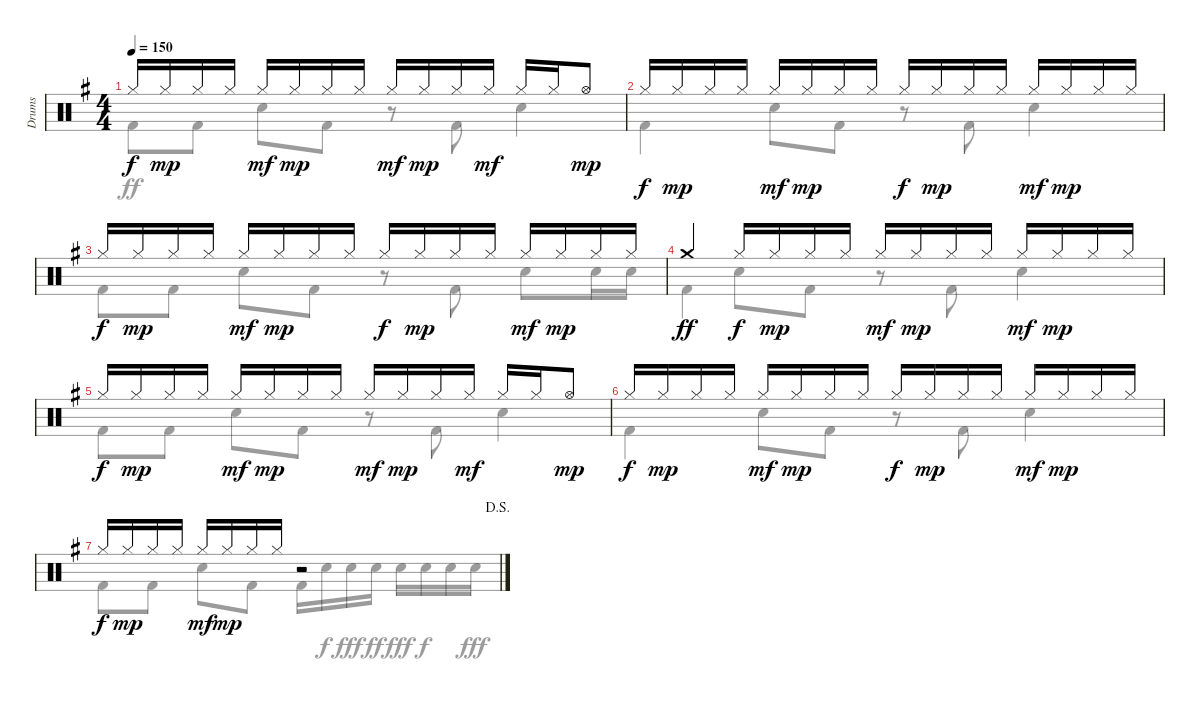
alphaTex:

\track ("Drums" "Drums") {instrument percussion}
\staff {score}
\articulation defaults
\voice
\ts (4 4)
\tempo 150
\clef neutral
\ks eminor "Hi-Hat (closed)".16{dy f} "Hi-Hat (closed)".16{dy mp} "Hi-Hat (closed)".16 "Hi-Hat (closed)".16 "Hi-Hat (closed)".16{dy mf} "Hi-Hat (closed)".16{dy mp} "Hi-Hat (closed)".16 "Hi-Hat (closed)".16 "Hi-Hat (closed)".16{dy mf} "Hi-Hat (closed)".16{dy mp} "Hi-Hat (closed)".16 "Hi-Hat (closed)".16{dy mf} "Hi-Hat (closed)".16 "Hi-Hat (closed)".16 "Hi-Hat (open)".8{dy mp}
|
"Hi-Hat (closed)".16{dy f} "Hi-Hat (closed)".16{dy mp} "Hi-Hat (closed)".16 "Hi-Hat (closed)".16 "Hi-Hat (closed)".16{dy mf} "Hi-Hat (closed)".16{dy mp} "Hi-Hat (closed)".16 "Hi-Hat (closed)".16 "Hi-Hat (closed)".16{dy f} "Hi-Hat (closed)".16{dy mp} "Hi-Hat (closed)".16 "Hi-Hat (closed)".16 "Hi-Hat (closed)".16{dy mf} "Hi-Hat (closed)".16{dy mp} "Hi-Hat (closed)".16 "Hi-Hat (closed)".16 |
"Hi-Hat (closed)".16{dy f} "Hi-Hat (closed)".16{dy mp} "Hi-Hat (closed)".16 "Hi-Hat (closed)".16 "Hi-Hat (closed)".16{dy mf} "Hi-Hat (closed)".16{dy mp} "Hi-Hat (closed)".16 "Hi-Hat (closed)".16 "Hi-Hat (closed)".16{dy f} "Hi-Hat (closed)".16{dy mp} "Hi-Hat (closed)".16 "Hi-Hat (closed)".16 "Hi-Hat (closed)".16{dy mf} "Hi-Hat (closed)".16{dy mp} "Hi-Hat (closed)".16 "Hi-Hat (closed)".16 |
"Crash medium (hit)".4{dy ff} "Hi-Hat (closed)".16{dy f} "Hi-Hat (closed)".16{dy mp} "Hi-Hat (closed)".16 "Hi-Hat (closed)".16 "Hi-Hat (closed)".16{dy mf} "Hi-Hat (closed)".16{dy mp} "Hi-Hat (closed)".16 "Hi-Hat (closed)".16 "Hi-Hat (closed)".16{dy mf} "Hi-Hat (closed)".16{dy mp} "Hi-Hat (closed)".16 "Hi-Hat (closed)".16 |
"Hi-Hat (closed)".16{dy f} "Hi-Hat (closed)".16{dy mp} "Hi-Hat (closed)".16 "Hi-Hat (closed)".16 "Hi-Hat (closed)".16{dy mf} "Hi-Hat (closed)".16{dy mp} "Hi-Hat (closed)".16 "Hi-Hat (closed)".16 "Hi-Hat (closed)".16{dy mf} "Hi-Hat (closed)".16{dy mp} "Hi-Hat (closed)".16 "Hi-Hat (closed)".16{dy mf} "Hi-Hat (closed)".16 "Hi-Hat (closed)".16 "Hi-Hat (open)".8{dy mp} |
"Hi-Hat (closed)".16{dy f} "Hi-Hat (closed)".16{dy mp} "Hi-Hat (closed)".16 "Hi-Hat (closed)".16 "Hi-Hat (closed)".16{dy mf} "Hi-Hat (closed)".16{dy mp} "Hi-Hat (closed)".16 "Hi-Hat (closed)".16 "Hi-Hat (closed)".16{dy f} "Hi-Hat (closed)".16{dy mp} "Hi-Hat (closed)".16 "Hi-Hat (closed)".16 "Hi-Hat (closed)".16{dy mf} "Hi-Hat (closed)".16{dy mp} "Hi-Hat (closed)".16 "Hi-Hat (closed)".16 |
\jump dalsegno "Hi-Hat (closed)".16{dy f} "Hi-Hat (closed)".16{dy mp} "Hi-Hat (closed)".16 "Hi-Hat (closed)".16 "Hi-Hat (closed)".16{dy mf} "Hi-Hat (closed)".16{dy mp} "Hi-Hat (closed)".16 "Hi-Hat (closed)".16
r.2
\voice
\clef neutral
\ottava regular
\simile none
\ks eminor "Kick (hit) 2".8{dy ff} "Kick (hit) 2".8 "Electric Snare (hit)".8 "Kick (hit) 2".8
r.8 "Kick (hit) 2".8 "Electric Snare (hit)".4 |
"Kick (hit) 2".4 "Electric Snare (hit)".8 "Kick (hit) 2".8 r.8 "Kick (hit) 2".8 "Electric Snare (hit)".4 |
"Kick (hit) 2".8 "Kick (hit) 2".8 "Electric Snare (hit)".8 "Kick (hit) 2".8 r.8 "Kick (hit) 2".8 "Electric Snare (hit)".8 "Electric Snare (hit)".16 "Electric Snare (hit)".16 |
"Kick (hit) 2".4 "Electric Snare (hit)".8 "Kick (hit) 2".8 r.8 "Kick (hit) 2".8 "Electric Snare (hit)".4 |
"Kick (hit) 2".8 "Kick (hit) 2".8 "Electric Snare (hit)".8 "Kick (hit) 2".8 r.8 "Kick (hit) 2".8 "Electric Snare (hit)".4 |
"Kick (hit) 2".4 "Electric Snare (hit)".8 "Kick (hit) 2".8 r.8 "Kick (hit) 2".8 "Electric Snare (hit)".4 |
"Kick (hit) 2".8 "Kick (hit) 2".8 "Electric Snare (hit)".8 "Kick (hit) 2".8 "Kick (hit) 2".16 "Electric Snare (hit)".16{dy f} "Electric Snare (hit)".16{dy fff} "Electric Snare (hit)".16{dy ff} "Electric Snare (hit)".16{dy fff} "Electric Snare (hit)".16{dy f} "Electric Snare (hit)".16 "Electric Snare (hit)".16{dy fff}
